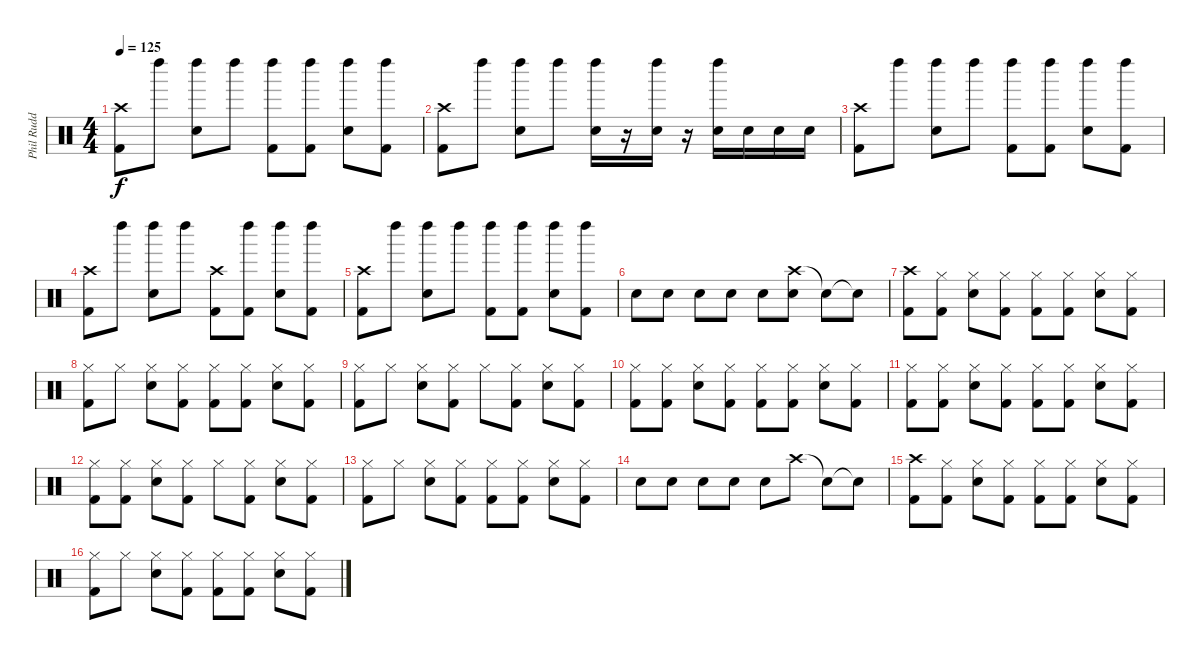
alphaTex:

\track ("Phil Rudd" "Phil Rudd") {instrument percussion}
\staff {score}
\articulation defaults
\ts (4 4)
\tempo 125
\clef neutral
\ks c
("Crash high (hit)" "Kick (hit) 2").8{dy f} "Left Maraca (hit)".8 ("Left Maraca (hit)" "Snare (hit) 2").8 "Left Maraca (hit)".8 ("Left Maraca (hit)" "Kick (hit) 2").8 ("Left Maraca (hit)" "Kick (hit) 2").8 ("Left Maraca (hit)" "Snare (hit) 2").8 ("Left Maraca (hit)" "Kick (hit) 2").8 |
("Crash high (hit)" "Kick (hit) 2").8 "Left Maraca (hit)".8 ("Left Maraca (hit)" "Snare (hit) 2").8 "Left Maraca (hit)".8 ("Left Maraca (hit)" "Snare (hit) 2").16 r.16 ("Left Maraca (hit)" "Snare (hit) 2").16 r.16 ("Left Maraca (hit)" "Snare (hit) 2").16 "Snare (hit) 2".16 "Snare (hit) 2".16 "Snare (hit) 2".16 |
("Crash high (hit)" "Kick (hit) 2").8 "Left Maraca (hit)".8 ("Left Maraca (hit)" "Snare (hit) 2").8 "Left Maraca (hit)".8 ("Left Maraca (hit)" "Kick (hit) 2").8 ("Left Maraca (hit)" "Kick (hit) 2").8 ("Left Maraca (hit)" "Snare (hit) 2").8 ("Left Maraca (hit)" "Kick (hit) 2").8 |
("Crash high (hit)" "Kick (hit) 2").8 "Left Maraca (hit)".8 ("Left Maraca (hit)" "Snare (hit) 2").8 "Left Maraca (hit)".8 ("Crash high (hit)" "Kick (hit) 2").8 ("Left Maraca (hit)" "Kick (hit) 2").8 ("Left Maraca (hit)" "Snare (hit) 2").8 ("Left Maraca (hit)" "Kick (hit) 2").8 |
("Crash high (hit)" "Kick (hit) 2").8 "Left Maraca (hit)".8 ("Left Maraca (hit)" "Snare (hit) 2").8 "Left Maraca (hit)".8 ("Left Maraca (hit)" "Kick (hit) 2").8 ("Left Maraca (hit)" "Kick (hit) 2").8 ("Left Maraca (hit)" "Snare (hit) 2").8 ("Left Maraca (hit)" "Kick (hit) 2").8 |
"Snare (hit) 2".8 "Snare (hit) 2".8 "Snare (hit) 2".8 "Snare (hit) 2".8 "Snare (hit) 2".8 ("Crash high (hit)" "Snare (hit) 2").8 "Snare (hit)"{t}.8 "Snare (hit)"{t}.8 |
("Crash high (hit)" "Kick (hit) 2").8 ("Hi-Hat (closed)" "Kick (hit) 2").8 ("Hi-Hat (closed)" "Snare (hit) 2").8 ("Hi-Hat (closed)" "Kick (hit) 2").8 ("Hi-Hat (closed)" "Kick (hit) 2").8 ("Hi-Hat (closed)" "Kick (hit) 2").8 ("Hi-Hat (closed)" "Snare (hit) 2").8 ("Hi-Hat (closed)" "Kick (hit) 2").8 |
("Hi-Hat (closed)" "Kick (hit) 2").8 "Hi-Hat (closed)".8 ("Hi-Hat (closed)" "Snare (hit) 2").8 ("Hi-Hat (closed)" "Kick (hit) 2").8 ("Hi-Hat (closed)" "Kick (hit) 2").8 ("Hi-Hat (closed)" "Kick (hit) 2").8 ("Hi-Hat (closed)" "Snare (hit) 2").8 ("Hi-Hat (closed)" "Kick (hit) 2").8 |
("Hi-Hat (closed)" "Kick (hit) 2").8 "Hi-Hat (closed)".8 ("Hi-Hat (closed)" "Snare (hit) 2").8 ("Hi-Hat (closed)" "Kick (hit) 2").8 "Hi-Hat (closed)".8 ("Hi-Hat (closed)" "Kick (hit) 2").8 ("Hi-Hat (closed)" "Snare (hit) 2").8 ("Hi-Hat (closed)" "Kick (hit) 2").8 |
("Hi-Hat (closed)" "Kick (hit) 2").8 ("Hi-Hat (closed)" "Kick (hit) 2").8 ("Hi-Hat (closed)" "Snare (hit) 2").8 ("Hi-Hat (closed)" "Kick (hit) 2").8 ("Hi-Hat (closed)" "Kick (hit) 2").8 ("Hi-Hat (closed)" "Kick (hit) 2").8 ("Hi-Hat (closed)" "Snare (hit) 2").8 ("Hi-Hat (closed)" "Kick (hit) 2").8 |
("Hi-Hat (closed)" "Kick (hit) 2").8 ("Hi-Hat (closed)" "Kick (hit) 2").8 ("Hi-Hat (closed)" "Snare (hit) 2").8 ("Hi-Hat (closed)" "Kick (hit) 2").8 ("Hi-Hat (closed)" "Kick (hit) 2").8 ("Hi-Hat (closed)" "Kick (hit) 2").8 ("Hi-Hat (closed)" "Snare (hit) 2").8 ("Hi-Hat (closed)" "Kick (hit) 2").8 |
("Hi-Hat (closed)" "Kick (hit) 2").8 ("Hi-Hat (closed)" "Kick (hit) 2").8 ("Hi-Hat (closed)" "Snare (hit) 2").8 ("Hi-Hat (closed)" "Kick (hit) 2").8 "Hi-Hat (closed)".8 ("Hi-Hat (closed)" "Kick (hit) 2").8 ("Hi-Hat (closed)" "Snare (hit) 2").8 ("Hi-Hat (closed)" "Kick (hit) 2").8 |
("Hi-Hat (closed)" "Kick (hit) 2").8 "Hi-Hat (closed)".8 ("Hi-Hat (closed)" "Snare (hit) 2").8 ("Hi-Hat (closed)" "Kick (hit) 2").8 ("Hi-Hat (closed)" "Kick (hit) 2").8 ("Hi-Hat (closed)" "Kick (hit) 2").8 ("Hi-Hat (closed)" "Snare (hit) 2").8 ("Hi-Hat (closed)" "Kick (hit) 2").8 |
"Snare (hit) 2".8 "Snare (hit) 2".8 "Snare (hit) 2".8 "Snare (hit) 2".8 "Snare (hit) 2".8 "Crash high (hit)".8 "Snare (hit)"{t}.8 "Snare (hit)"{t}.8 |
("Crash high (hit)" "Kick (hit) 2").8 ("Hi-Hat (closed)" "Kick (hit) 2").8 ("Hi-Hat (closed)" "Snare (hit) 2").8 ("Hi-Hat (closed)" "Kick (hit) 2").8 ("Hi-Hat (closed)" "Kick (hit) 2").8 ("Hi-Hat (closed)" "Kick (hit) 2").8 ("Hi-Hat (closed)" "Snare (hit) 2").8 ("Hi-Hat (closed)" "Kick (hit) 2").8 |
("Hi-Hat (closed)" "Kick (hit) 2").8 "Hi-Hat (closed)".8 ("Hi-Hat (closed)" "Snare (hit) 2").8 ("Hi-Hat (closed)" "Kick (hit) 2").8 ("Hi-Hat (closed)" "Kick (hit) 2").8 ("Hi-Hat (closed)" "Kick (hit) 2").8 ("Hi-Hat (closed)" "Snare (hit) 2").8 ("Hi-Hat (closed)" "Kick (hit) 2").8
